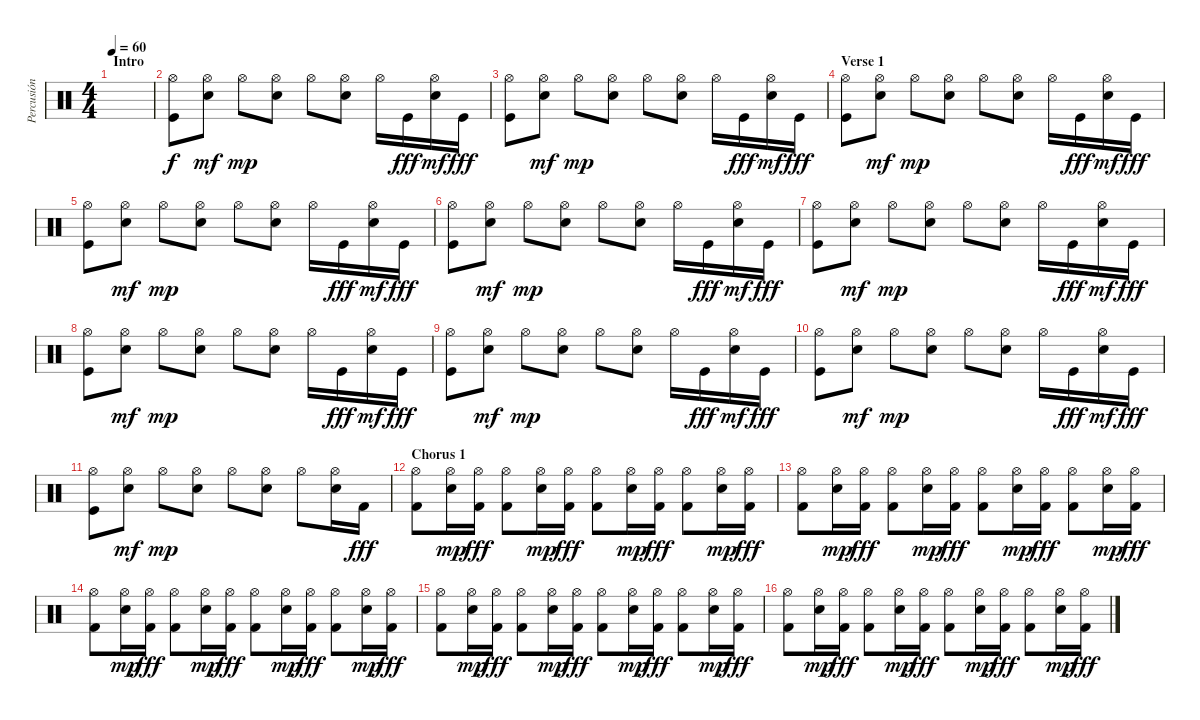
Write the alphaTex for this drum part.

\track ("Percusión" "Percusión") {instrument percussion}
\staff {score}
\articulation defaults
\ts (4 4)
\section ("" "Intro")
\tempo 60
\clef neutral
\ks c
|
("Hi-Hat (open)" "Kick (hit)").8 ("Hi-Hat (open)" "Snare (hit) 2").8{dy mf} "Hi-Hat (open)".8{dy mp} ("Hi-Hat (open)" "Snare (hit) 2").8 "Hi-Hat (open)".8 ("Hi-Hat (open)" "Snare (hit) 2").8 "Hi-Hat (open)".16 "Kick (hit)".16{dy fff} ("Hi-Hat (open)" "Snare (hit) 2").16{dy mf} "Kick (hit)".16{dy fff} |
("Hi-Hat (open)" "Kick (hit)").8 ("Hi-Hat (open)" "Snare (hit) 2").8{dy mf} "Hi-Hat (open)".8{dy mp} ("Hi-Hat (open)" "Snare (hit) 2").8 "Hi-Hat (open)".8 ("Hi-Hat (open)" "Snare (hit) 2").8 "Hi-Hat (open)".16 "Kick (hit)".16{dy fff} ("Hi-Hat (open)" "Snare (hit) 2").16{dy mf} "Kick (hit)".16{dy fff} |
\section ("" "Verse 1")
("Hi-Hat (open)" "Kick (hit)").8 ("Hi-Hat (open)" "Snare (hit) 2").8{dy mf} "Hi-Hat (open)".8{dy mp} ("Hi-Hat (open)" "Snare (hit) 2").8 "Hi-Hat (open)".8 ("Hi-Hat (open)" "Snare (hit) 2").8 "Hi-Hat (open)".16 "Kick (hit)".16{dy fff} ("Hi-Hat (open)" "Snare (hit) 2").16{dy mf} "Kick (hit)".16{dy fff} |
("Hi-Hat (open)" "Kick (hit)").8 ("Hi-Hat (open)" "Snare (hit) 2").8{dy mf} "Hi-Hat (open)".8{dy mp} ("Hi-Hat (open)" "Snare (hit) 2").8 "Hi-Hat (open)".8 ("Hi-Hat (open)" "Snare (hit) 2").8 "Hi-Hat (open)".16 "Kick (hit)".16{dy fff} ("Hi-Hat (open)" "Snare (hit) 2").16{dy mf} "Kick (hit)".16{dy fff} |
("Hi-Hat (open)" "Kick (hit)").8 ("Hi-Hat (open)" "Snare (hit) 2").8{dy mf} "Hi-Hat (open)".8{dy mp} ("Hi-Hat (open)" "Snare (hit) 2").8 "Hi-Hat (open)".8 ("Hi-Hat (open)" "Snare (hit) 2").8 "Hi-Hat (open)".16 "Kick (hit)".16{dy fff} ("Hi-Hat (open)" "Snare (hit) 2").16{dy mf} "Kick (hit)".16{dy fff} |
("Hi-Hat (open)" "Kick (hit)").8 ("Hi-Hat (open)" "Snare (hit) 2").8{dy mf} "Hi-Hat (open)".8{dy mp} ("Hi-Hat (open)" "Snare (hit) 2").8 "Hi-Hat (open)".8 ("Hi-Hat (open)" "Snare (hit) 2").8 "Hi-Hat (open)".16 "Kick (hit)".16{dy fff} ("Hi-Hat (open)" "Snare (hit) 2").16{dy mf} "Kick (hit)".16{dy fff} |
("Hi-Hat (open)" "Kick (hit)").8 ("Hi-Hat (open)" "Snare (hit) 2").8{dy mf} "Hi-Hat (open)".8{dy mp} ("Hi-Hat (open)" "Snare (hit) 2").8 "Hi-Hat (open)".8 ("Hi-Hat (open)" "Snare (hit) 2").8 "Hi-Hat (open)".16 "Kick (hit)".16{dy fff} ("Hi-Hat (open)" "Snare (hit) 2").16{dy mf} "Kick (hit)".16{dy fff} |
("Hi-Hat (open)" "Kick (hit)").8 ("Hi-Hat (open)" "Snare (hit) 2").8{dy mf} "Hi-Hat (open)".8{dy mp} ("Hi-Hat (open)" "Snare (hit) 2").8 "Hi-Hat (open)".8 ("Hi-Hat (open)" "Snare (hit) 2").8 "Hi-Hat (open)".16 "Kick (hit)".16{dy fff} ("Hi-Hat (open)" "Snare (hit) 2").16{dy mf} "Kick (hit)".16{dy fff} |
("Hi-Hat (open)" "Kick (hit)").8 ("Hi-Hat (open)" "Snare (hit) 2").8{dy mf} "Hi-Hat (open)".8{dy mp} ("Hi-Hat (open)" "Snare (hit) 2").8 "Hi-Hat (open)".8 ("Hi-Hat (open)" "Snare (hit) 2").8 "Hi-Hat (open)".16 "Kick (hit)".16{dy fff} ("Hi-Hat (open)" "Snare (hit) 2").16{dy mf} "Kick (hit)".16{dy fff} |
("Hi-Hat (open)" "Kick (hit)").8 ("Hi-Hat (open)" "Snare (hit) 2").8{dy mf} "Hi-Hat (open)".8{dy mp} ("Hi-Hat (open)" "Snare (hit) 2").8 "Hi-Hat (open)".8 ("Hi-Hat (open)" "Snare (hit) 2").8 "Hi-Hat (open)".8 ("Hi-Hat (open)" "Snare (hit) 2").16 "Kick (hit) 2".16{dy fff} |
\section ("" "Chorus 1")
("Hi-Hat (open)" "Kick (hit) 2").8 ("Hi-Hat (open)" "Snare (hit) 2").16{dy mp} ("Hi-Hat (open)" "Kick (hit) 2").16{dy fff} ("Hi-Hat (open)" "Kick (hit) 2").8 ("Hi-Hat (open)" "Snare (hit) 2").16{dy mp} ("Hi-Hat (open)" "Kick (hit) 2").16{dy fff} ("Hi-Hat (open)" "Kick (hit) 2").8 ("Hi-Hat (open)" "Snare (hit) 2").16{dy mp} ("Hi-Hat (open)" "Kick (hit) 2").16{dy fff} ("Hi-Hat (open)" "Kick (hit) 2").8 ("Hi-Hat (open)" "Snare (hit) 2").16{dy mp} ("Hi-Hat (open)" "Kick (hit) 2").16{dy fff} |
("Hi-Hat (open)" "Kick (hit) 2").8 ("Hi-Hat (open)" "Snare (hit) 2").16{dy mp} ("Hi-Hat (open)" "Kick (hit) 2").16{dy fff} ("Hi-Hat (open)" "Kick (hit) 2").8 ("Hi-Hat (open)" "Snare (hit) 2").16{dy mp} ("Hi-Hat (open)" "Kick (hit) 2").16{dy fff} ("Hi-Hat (open)" "Kick (hit) 2").8 ("Hi-Hat (open)" "Snare (hit) 2").16{dy mp} ("Hi-Hat (open)" "Kick (hit) 2").16{dy fff} ("Hi-Hat (open)" "Kick (hit) 2").8 ("Hi-Hat (open)" "Snare (hit) 2").16{dy mp} ("Hi-Hat (open)" "Kick (hit) 2").16{dy fff} |
("Hi-Hat (open)" "Kick (hit) 2").8 ("Hi-Hat (open)" "Snare (hit) 2").16{dy mp} ("Hi-Hat (open)" "Kick (hit) 2").16{dy fff} ("Hi-Hat (open)" "Kick (hit) 2").8 ("Hi-Hat (open)" "Snare (hit) 2").16{dy mp} ("Hi-Hat (open)" "Kick (hit) 2").16{dy fff} ("Hi-Hat (open)" "Kick (hit) 2").8 ("Hi-Hat (open)" "Snare (hit) 2").16{dy mp} ("Hi-Hat (open)" "Kick (hit) 2").16{dy fff} ("Hi-Hat (open)" "Kick (hit) 2").8 ("Hi-Hat (open)" "Snare (hit) 2").16{dy mp} ("Hi-Hat (open)" "Kick (hit) 2").16{dy fff} |
("Hi-Hat (open)" "Kick (hit) 2").8 ("Hi-Hat (open)" "Snare (hit) 2").16{dy mp} ("Hi-Hat (open)" "Kick (hit) 2").16{dy fff} ("Hi-Hat (open)" "Kick (hit) 2").8 ("Hi-Hat (open)" "Snare (hit) 2").16{dy mp} ("Hi-Hat (open)" "Kick (hit) 2").16{dy fff} ("Hi-Hat (open)" "Kick (hit) 2").8 ("Hi-Hat (open)" "Snare (hit) 2").16{dy mp} ("Hi-Hat (open)" "Kick (hit) 2").16{dy fff} ("Hi-Hat (open)" "Kick (hit) 2").8 ("Hi-Hat (open)" "Snare (hit) 2").16{dy mp} ("Hi-Hat (open)" "Kick (hit) 2").16{dy fff} |
("Hi-Hat (open)" "Kick (hit) 2").8 ("Hi-Hat (open)" "Snare (hit) 2").16{dy mp} ("Hi-Hat (open)" "Kick (hit) 2").16{dy fff} ("Hi-Hat (open)" "Kick (hit) 2").8 ("Hi-Hat (open)" "Snare (hit) 2").16{dy mp} ("Hi-Hat (open)" "Kick (hit) 2").16{dy fff} ("Hi-Hat (open)" "Kick (hit) 2").8 ("Hi-Hat (open)" "Snare (hit) 2").16{dy mp} ("Hi-Hat (open)" "Kick (hit) 2").16{dy fff} ("Hi-Hat (open)" "Kick (hit) 2").8 ("Hi-Hat (open)" "Snare (hit) 2").16{dy mp} ("Hi-Hat (open)" "Kick (hit) 2").16{dy fff}
